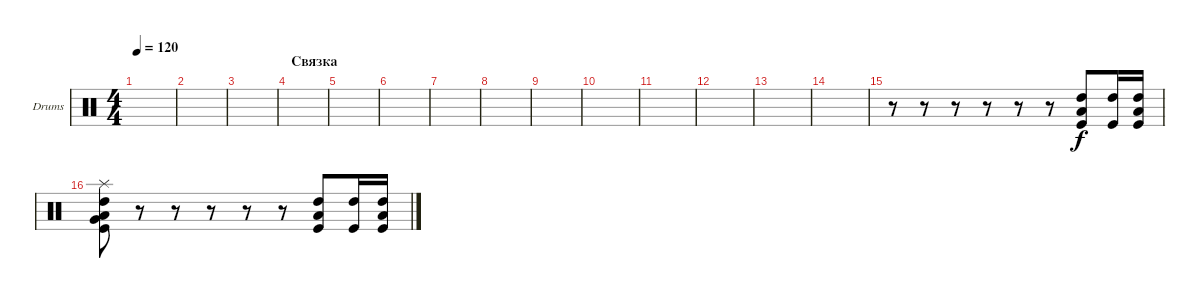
\defaultSystemsLayout 4
\bracketExtendMode groupsimilarinstruments
\firstSystemTrackNameOrientation horizontal
\otherSystemsTrackNameOrientation horizontal
\track ("Drumkit" "Drums") {instrument percussion}
\staff {score}
\articulation defaults
\ts (4 4)
\tempo 120
\clef neutral
\scale
0.333333
\ks c
|
\scale
0.333333 |
\scale
0.333333 |
\section ("" "Связка")
\scale
0.333333 |
\scale
0.333333 |
\scale
0.333333 |
\scale
0.333333 |
\scale
0.333333 |
\scale
0.333333 |
\scale
0.333333 |
\scale
0.333333 |
\scale
0.333333 |
\scale
0.333333 |
\scale
0.333333 |
\scale
0.333333 r.8 r.8 r.8 r.8 r.8 r.8 ("High Tom (hit)" "Low Tom (hit)" "Kick (hit)").8{dy f} ("High Tom (hit)" "Kick (hit)").16 ("High Tom (hit)" "Low Tom (hit)" "Kick (hit)").16 |
\scale
0.333333 ("High Tom (hit)" "Splash (hit)" "Low Tom (hit)" "Very Low Tom (hit)" "Kick (hit)").8 r.8 r.8 r.8 r.8 r.8 ("High Tom (hit)" "Low Tom (hit)" "Kick (hit)").8 ("High Tom (hit)" "Kick (hit)").16 ("High Tom (hit)" "Low Tom (hit)" "Kick (hit)").16
